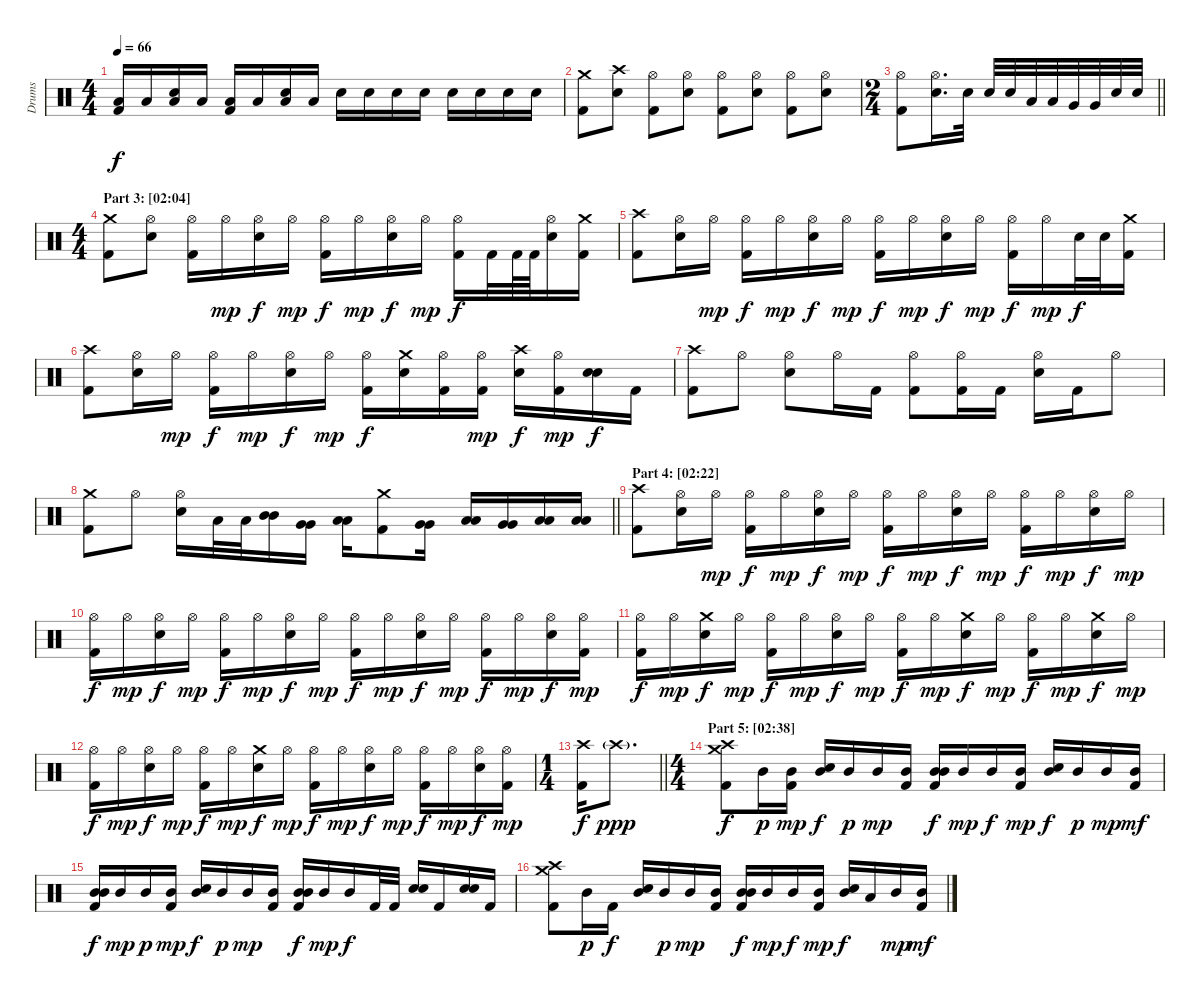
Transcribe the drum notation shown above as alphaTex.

\track ("Drums" "Drums") {instrument percussion}
\staff {score}
\articulation defaults
\ts (4 4)
\tempo 66
\clef neutral
\ks c
("Low Floor Tom (hit)" "Kick (hit) 2").16{dy f} "Low Floor Tom (hit)".16 ("Low Floor Tom (hit)" "Electric Snare (hit)").16 "Low Floor Tom (hit)".16 ("Low Floor Tom (hit)" "Kick (hit) 2").16 "Low Floor Tom (hit)".16 ("Low Floor Tom (hit)" "Electric Snare (hit)").16 "Low Floor Tom (hit)".16 "Electric Snare (hit)".16 "Electric Snare (hit)".16 "Electric Snare (hit)".16 "Electric Snare (hit)".16 "Electric Snare (hit)".16 "Electric Snare (hit)".16 "Electric Snare (hit)".16 "Electric Snare (hit)".16 |
("Crash medium (hit)" "Kick (hit) 2").8 ("Crash high (hit)" "Electric Snare (hit)").8 ("Hi-Hat (open)" "Kick (hit) 2").8 ("Hi-Hat (open)" "Electric Snare (hit)").8 ("Hi-Hat (open)" "Kick (hit) 2").8 ("Hi-Hat (open)" "Electric Snare (hit)").8 ("Hi-Hat (open)" "Kick (hit) 2").8 ("Hi-Hat (open)" "Electric Snare (hit)").8 |
\ts (2 4)
\barLineRight lightlight
("Hi-Hat (open)" "Kick (hit) 2").8 ("Hi-Hat (open)" "Electric Snare (hit)").16{d} "Electric Snare (hit)".32 "Electric Snare (hit)".32 "Electric Snare (hit)".32 "Low Tom (hit)".32 "Low Tom (hit)".32 "Very Low Tom (hit)".32 "Very Low Tom (hit)".32 "Electric Snare (hit)".32 "Electric Snare (hit)".32 |
\ts (4 4)
\section ("" "Part 3: [02:04]")
("Crash medium (hit)" "Kick (hit) 2").8 ("Hi-Hat (open)" "Electric Snare (hit)").8 ("Hi-Hat (open)" "Kick (hit) 2").16 "Hi-Hat (open)".16{dy mp} ("Hi-Hat (open)" "Electric Snare (hit)").16{dy f} "Hi-Hat (open)".16{dy mp} ("Hi-Hat (open)" "Kick (hit) 2").16{dy f} "Hi-Hat (open)".16{dy mp} ("Hi-Hat (open)" "Electric Snare (hit)").16{dy f} "Hi-Hat (open)".16{dy mp} ("Hi-Hat (open)" "Kick (hit) 2").16{dy f} "Kick (hit) 2".32 "Kick (hit) 2".64 "Kick (hit) 2".64 ("Hi-Hat (open)" "Electric Snare (hit)").16 ("Crash medium (hit)" "Kick (hit) 2").16 |
("Crash high (hit)" "Kick (hit) 2").8 ("Hi-Hat (open)" "Electric Snare (hit)").16 "Hi-Hat (open)".16{dy mp} ("Hi-Hat (open)" "Kick (hit) 2").16{dy f} "Hi-Hat (open)".16{dy mp} ("Hi-Hat (open)" "Electric Snare (hit)").16{dy f} "Hi-Hat (open)".16{dy mp} ("Hi-Hat (open)" "Kick (hit) 2").16{dy f} "Hi-Hat (open)".16{dy mp} ("Hi-Hat (open)" "Electric Snare (hit)").16{dy f} "Hi-Hat (open)".16{dy mp} ("Hi-Hat (open)" "Kick (hit) 2").16{dy f} "Hi-Hat (open)".16{dy mp} "Electric Snare (hit)".32{dy f} "Electric Snare (hit)".32 ("Crash medium (hit)" "Kick (hit) 2").16 |
("Crash high (hit)" "Kick (hit) 2").8 ("Hi-Hat (open)" "Electric Snare (hit)").16 "Hi-Hat (open)".16{dy mp} ("Hi-Hat (open)" "Kick (hit) 2").16{dy f} "Hi-Hat (open)".16{dy mp} ("Hi-Hat (open)" "Electric Snare (hit)").16{dy f} "Hi-Hat (open)".16{dy mp} ("Hi-Hat (open)" "Kick (hit) 2").16{dy f} ("Crash medium (hit)" "Electric Snare (hit)").16 ("Hi-Hat (open)" "Kick (hit) 2").16 ("Hi-Hat (open)" "Kick (hit) 2").16{dy mp} ("Crash high (hit)" "Electric Snare (hit)").16{dy f} ("Hi-Hat (open)" "Kick (hit) 2").16{dy mp} ("Electric Snare (hit)" "Electric Snare (hit)").16{bd 120 dy f} "Kick (hit) 2".16 |
("Crash high (hit)" "Kick (hit) 2").8 "Hi-Hat (open)".8 ("Hi-Hat (open)" "Electric Snare (hit)").8 "Hi-Hat (open)".16 "Kick (hit) 2".16 ("Hi-Hat (open)" "Kick (hit) 2").8 ("Hi-Hat (open)" "Kick (hit) 2").16 "Kick (hit) 2".16 ("Hi-Hat (open)" "Electric Snare (hit)").16 "Kick (hit) 2".16 "Hi-Hat (open)".8 |
\barLineRight lightlight
("Crash medium (hit)" "Kick (hit) 2").8 "Hi-Hat (open)".8 ("Hi-Hat (open)" "Electric Snare (hit)").16 "Low Tom (hit)".32 "Low Tom (hit)".32 ("Mid Tom (hit)" "Mid Tom (hit)").16 ("Very Low Tom (hit)" "Very Low Tom (hit)").16 ("Low Tom (hit)" "Low Tom (hit)").16 ("Crash medium (hit)" "Kick (hit) 2").8 ("Very Low Tom (hit)" "Very Low Tom (hit)").16 ("Low Tom (hit)" "Low Tom (hit)").16 ("Very Low Tom (hit)" "Very Low Tom (hit)").16 ("Low Floor Tom (hit)" "Low Floor Tom (hit)").16 ("Low Floor Tom (hit)" "Low Floor Tom (hit)").16 |
\section ("" "Part 4: [02:22]")
("Crash high (hit)" "Kick (hit) 2").8 ("Hi-Hat (open)" "Electric Snare (hit)").16 "Hi-Hat (open)".16{dy mp} ("Hi-Hat (open)" "Kick (hit) 2").16{dy f} "Hi-Hat (open)".16{dy mp} ("Hi-Hat (open)" "Electric Snare (hit)").16{dy f} "Hi-Hat (open)".16{dy mp} ("Hi-Hat (open)" "Kick (hit) 2").16{dy f} "Hi-Hat (open)".16{dy mp} ("Hi-Hat (open)" "Electric Snare (hit)").16{dy f} "Hi-Hat (open)".16{dy mp} ("Hi-Hat (open)" "Kick (hit) 2").16{dy f} "Hi-Hat (open)".16{dy mp} ("Hi-Hat (open)" "Electric Snare (hit)").16{dy f} "Hi-Hat (open)".16{dy mp} |
("Hi-Hat (open)" "Kick (hit) 2").16{dy f} "Hi-Hat (open)".16{dy mp} ("Hi-Hat (open)" "Electric Snare (hit)").16{dy f} "Hi-Hat (open)".16{dy mp} ("Hi-Hat (open)" "Kick (hit) 2").16{dy f} "Hi-Hat (open)".16{dy mp} ("Hi-Hat (open)" "Electric Snare (hit)").16{dy f} "Hi-Hat (open)".16{dy mp} ("Hi-Hat (open)" "Kick (hit) 2").16{dy f} "Hi-Hat (open)".16{dy mp} ("Hi-Hat (open)" "Electric Snare (hit)").16{dy f} "Hi-Hat (open)".16{dy mp} ("Hi-Hat (open)" "Kick (hit) 2").16{dy f} "Hi-Hat (open)".16{dy mp} ("Hi-Hat (open)" "Electric Snare (hit)").16{dy f} ("Hi-Hat (open)" "Kick (hit) 2").16{dy mp} |
("Hi-Hat (open)" "Kick (hit) 2").16{dy f} "Hi-Hat (open)".16{dy mp} ("Crash medium (hit)" "Electric Snare (hit)").16{dy f} "Hi-Hat (open)".16{dy mp} ("Hi-Hat (open)" "Kick (hit) 2").16{dy f} "Hi-Hat (open)".16{dy mp} ("Hi-Hat (open)" "Electric Snare (hit)").16{dy f} "Hi-Hat (open)".16{dy mp} ("Hi-Hat (open)" "Kick (hit) 2").16{dy f} "Hi-Hat (open)".16{dy mp} ("Crash medium (hit)" "Electric Snare (hit)").16{dy f} "Hi-Hat (open)".16{dy mp} ("Hi-Hat (open)" "Kick (hit) 2").16{dy f} "Hi-Hat (open)".16{dy mp} ("Crash medium (hit)" "Electric Snare (hit)").16{dy f} "Hi-Hat (open)".16{dy mp} |
("Hi-Hat (open)" "Kick (hit) 2").16{dy f} "Hi-Hat (open)".16{dy mp} ("Hi-Hat (open)" "Electric Snare (hit)").16{dy f} "Hi-Hat (open)".16{dy mp} ("Hi-Hat (open)" "Kick (hit) 2").16{dy f} "Hi-Hat (open)".16{dy mp} ("Crash medium (hit)" "Electric Snare (hit)").16{dy f} "Hi-Hat (open)".16{dy mp} ("Hi-Hat (open)" "Kick (hit) 2").16{dy f} "Hi-Hat (open)".16{dy mp} ("Hi-Hat (open)" "Electric Snare (hit)").16{dy f} "Hi-Hat (open)".16{dy mp} ("Hi-Hat (open)" "Kick (hit) 2").16{dy f} "Hi-Hat (open)".16{dy mp} ("Hi-Hat (open)" "Electric Snare (hit)").16{dy f} ("Hi-Hat (open)" "Kick (hit) 2").16{dy mp} |
\ts (1 4)
\barLineRight lightlight
("Crash high (hit)" "Kick (hit) 2").16{dy f} "Crash high (hit)"{g}.8{d dy ppp} |
\ts (4 4)
\section ("" "Part 5: [02:38]")
("Crash high (hit)" "Crash medium (hit)" "Kick (hit) 2").8{dy f} "Mid Tom (hit)".16{dy p} ("Mid Tom (hit)" "Kick (hit) 2").16{dy mp} ("Mid Tom (hit)" "Electric Snare (hit)").16{dy f} "Mid Tom (hit)".16{dy p} "Mid Tom (hit)".16{dy mp} ("Mid Tom (hit)" "Kick (hit) 2").16 ("Mid Tom (hit)" "Mid Tom (hit)" "Kick (hit) 2").16{dy f} "Mid Tom (hit)".16{dy mp} "Mid Tom (hit)".16{dy f} ("Mid Tom (hit)" "Kick (hit) 2").16{dy mp} ("Mid Tom (hit)" "Electric Snare (hit)").16{dy f} "Mid Tom (hit)".16{dy p} "Mid Tom (hit)".16{dy mp} ("Mid Tom (hit)" "Kick (hit) 2").16{dy mf} |
("Mid Tom (hit)" "Mid Tom (hit)" "Kick (hit) 2").16{dy f} "Mid Tom (hit)".16{dy mp} "Mid Tom (hit)".16{dy p} ("Mid Tom (hit)" "Kick (hit) 2").16{dy mp} ("Mid Tom (hit)" "Electric Snare (hit)").16{dy f} "Mid Tom (hit)".16{dy p} "Mid Tom (hit)".16{dy mp} ("Mid Tom (hit)" "Kick (hit) 2").16 ("Mid Tom (hit)" "Mid Tom (hit)" "Kick (hit) 2").16{dy f} "Mid Tom (hit)".16{dy mp} "Mid Tom (hit)".16{dy f} "Kick (hit) 2".32 "Kick (hit) 2".32 ("Electric Snare (hit)" "Electric Snare (hit)").16{bd 60} "Kick (hit) 2".16 ("Electric Snare (hit)" "Electric Snare (hit)").16{bd 60} "Kick (hit) 2".16 |
("Crash high (hit)" "Crash medium (hit)" "Kick (hit) 2").8 "Mid Tom (hit)".16{dy p} "Kick (hit) 2".16{dy f} ("Mid Tom (hit)" "Electric Snare (hit)").16 "Mid Tom (hit)".16{dy p} "Mid Tom (hit)".16{dy mp} ("Mid Tom (hit)" "Kick (hit) 2").16 ("Mid Tom (hit)" "Mid Tom (hit)" "Kick (hit) 2").16{dy f} "Mid Tom (hit)".16{dy mp} "Mid Tom (hit)".16{dy f} ("Mid Tom (hit)" "Kick (hit) 2").16{dy mp} ("Mid Tom (hit)" "Electric Snare (hit)").16{dy f} "Low Tom (hit)".16 "Mid Tom (hit)".16{dy mp} ("Mid Tom (hit)" "Kick (hit) 2").16{dy mf}
